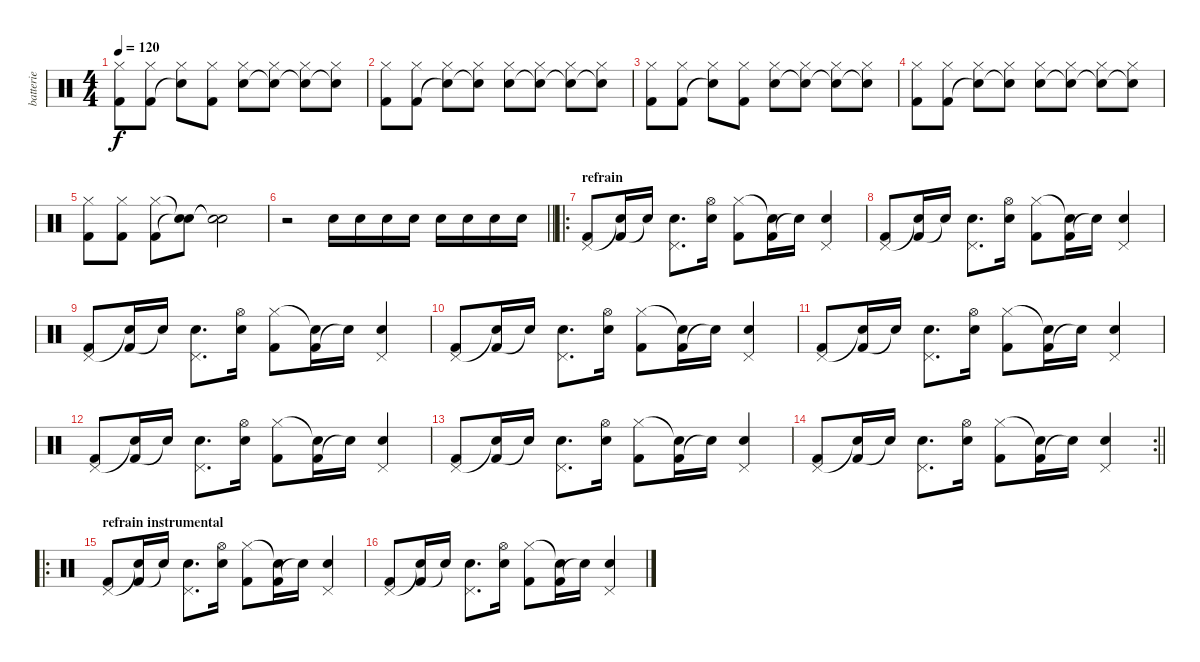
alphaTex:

\track ("batterie" "batterie") {instrument percussion}
\staff {score}
\articulation defaults
\ts (4 4)
\tempo 120
\clef neutral
\ks c
("Kick (hit) 2" "Hi-Hat (closed)").8{dy f} ("Kick (hit) 2" "Hi-Hat (closed)").8 ("Snare (hit)"{t} "Hi-Hat (closed)").8 ("Kick (hit) 2" "Hi-Hat (closed)").8 ("Hi-Hat (closed)" "Snare (hit) 2").8 ("Hi-Hat (closed)" "Snare (hit)"{t}).8 ("Hi-Hat (closed)" "Snare (hit)"{t}).8 ("Hi-Hat (closed)" "Snare (hit)"{t}).8 |
("Kick (hit) 2" "Hi-Hat (closed)").8 ("Kick (hit) 2" "Hi-Hat (closed)").8 ("Snare (hit)"{t} "Hi-Hat (closed)").8 ("Snare (hit)"{t} "Hi-Hat (closed)").8 ("Hi-Hat (closed)" "Snare (hit) 2").8 ("Hi-Hat (closed)" "Snare (hit)"{t}).8 ("Hi-Hat (closed)" "Snare (hit)"{t}).8 ("Hi-Hat (closed)" "Snare (hit)"{t}).8 |
("Kick (hit) 2" "Hi-Hat (closed)").8 ("Kick (hit) 2" "Hi-Hat (closed)").8 ("Snare (hit)"{t} "Hi-Hat (closed)").8 ("Kick (hit) 2" "Hi-Hat (closed)").8 ("Hi-Hat (closed)" "Snare (hit) 2").8 ("Hi-Hat (closed)" "Snare (hit)"{t}).8 ("Hi-Hat (closed)" "Snare (hit)"{t}).8 ("Hi-Hat (closed)" "Snare (hit)"{t}).8 |
("Kick (hit) 2" "Hi-Hat (closed)").8 ("Kick (hit) 2" "Hi-Hat (closed)").8 ("Snare (hit)"{t} "Hi-Hat (closed)").8 ("Snare (hit)"{t} "Hi-Hat (closed)").8 ("Hi-Hat (closed)" "Snare (hit) 2").8 ("Hi-Hat (closed)" "Snare (hit)"{t}).8 ("Hi-Hat (closed)" "Snare (hit)"{t}).8 ("Hi-Hat (closed)" "Snare (hit)"{t}).8 |
("Kick (hit) 2" "Hi-Hat (closed)").8 ("Kick (hit) 2" "Hi-Hat (closed)").8 ("Kick (hit) 2" "Hi-Hat (closed)").8 ("Snare (hit)"{t} "Snare (hit)"{t}).8 ("Snare (hit)"{t} "Snare (hit)"{t}).2 |
\barLineRight lightlight
r.2 "Snare (hit) 2".16 "Snare (hit) 2".16 "Snare (hit) 2".16 "Snare (hit) 2".16 "Snare (hit) 2".16 "Snare (hit) 2".16 "Snare (hit) 2".16 "Snare (hit) 2".16 |
\ro
\section ("" "refrain")
("Kick (hit) 2" "Pedal Hi-Hat (hit)").8 ("Kick (hit) 2" "Snare (hit)"{t}).16 "Snare (hit)"{t}.16 ("Snare (hit) 2" "Pedal Hi-Hat (hit)").8{d} ("Snare (hit) 2" "Hi-Hat (open)").16 ("Kick (hit) 2" "Hi-Hat (closed)").8 ("Kick (hit) 2" "Snare (hit)"{t}).16 "Snare (hit)"{t}.16 ("Snare (hit) 2" "Pedal Hi-Hat (hit)").4 |
("Kick (hit) 2" "Pedal Hi-Hat (hit)").8 ("Kick (hit) 2" "Snare (hit)"{t}).16 "Snare (hit)"{t}.16 ("Snare (hit) 2" "Pedal Hi-Hat (hit)").8{d} ("Snare (hit) 2" "Hi-Hat (open)").16 ("Kick (hit) 2" "Hi-Hat (closed)").8 ("Kick (hit) 2" "Snare (hit)"{t}).16 "Snare (hit)"{t}.16 ("Snare (hit) 2" "Pedal Hi-Hat (hit)").4 |
("Kick (hit) 2" "Pedal Hi-Hat (hit)").8 ("Kick (hit) 2" "Snare (hit)"{t}).16 "Snare (hit)"{t}.16 ("Snare (hit) 2" "Pedal Hi-Hat (hit)").8{d} ("Snare (hit) 2" "Hi-Hat (open)").16 ("Kick (hit) 2" "Hi-Hat (closed)").8 ("Kick (hit) 2" "Snare (hit)"{t}).16 "Snare (hit)"{t}.16 ("Snare (hit) 2" "Pedal Hi-Hat (hit)").4 |
("Kick (hit) 2" "Pedal Hi-Hat (hit)").8 ("Kick (hit) 2" "Snare (hit)"{t}).16 "Snare (hit)"{t}.16 ("Snare (hit) 2" "Pedal Hi-Hat (hit)").8{d} ("Snare (hit) 2" "Hi-Hat (open)").16 ("Kick (hit) 2" "Hi-Hat (closed)").8 ("Kick (hit) 2" "Snare (hit)"{t}).16 "Snare (hit)"{t}.16 ("Snare (hit) 2" "Pedal Hi-Hat (hit)").4 |
("Kick (hit) 2" "Pedal Hi-Hat (hit)").8 ("Kick (hit) 2" "Snare (hit)"{t}).16 "Snare (hit)"{t}.16 ("Snare (hit) 2" "Pedal Hi-Hat (hit)").8{d} ("Snare (hit) 2" "Hi-Hat (open)").16 ("Kick (hit) 2" "Hi-Hat (closed)").8 ("Kick (hit) 2" "Snare (hit)"{t}).16 "Snare (hit)"{t}.16 ("Snare (hit) 2" "Pedal Hi-Hat (hit)").4 |
("Kick (hit) 2" "Pedal Hi-Hat (hit)").8 ("Kick (hit) 2" "Snare (hit)"{t}).16 "Snare (hit)"{t}.16 ("Snare (hit) 2" "Pedal Hi-Hat (hit)").8{d} ("Snare (hit) 2" "Hi-Hat (open)").16 ("Kick (hit) 2" "Hi-Hat (closed)").8 ("Kick (hit) 2" "Snare (hit)"{t}).16 "Snare (hit)"{t}.16 ("Snare (hit) 2" "Pedal Hi-Hat (hit)").4 |
("Kick (hit) 2" "Pedal Hi-Hat (hit)").8 ("Kick (hit) 2" "Snare (hit)"{t}).16 "Snare (hit)"{t}.16 ("Snare (hit) 2" "Pedal Hi-Hat (hit)").8{d} ("Snare (hit) 2" "Hi-Hat (open)").16 ("Kick (hit) 2" "Hi-Hat (closed)").8 ("Kick (hit) 2" "Snare (hit)"{t}).16 "Snare (hit)"{t}.16 ("Snare (hit) 2" "Pedal Hi-Hat (hit)").4 |
\rc 2
\barLineRight lightlight
("Kick (hit) 2" "Pedal Hi-Hat (hit)").8 ("Kick (hit) 2" "Snare (hit)"{t}).16 "Snare (hit)"{t}.16 ("Snare (hit) 2" "Pedal Hi-Hat (hit)").8{d} ("Snare (hit) 2" "Hi-Hat (open)").16 ("Kick (hit) 2" "Hi-Hat (closed)").8 ("Kick (hit) 2" "Snare (hit)"{t}).16 "Snare (hit)"{t}.16 ("Snare (hit) 2" "Pedal Hi-Hat (hit)").4 |
\ro
\section ("" "refrain instrumental")
("Kick (hit) 2" "Pedal Hi-Hat (hit)").8 ("Kick (hit) 2" "Snare (hit)"{t}).16 "Snare (hit)"{t}.16 ("Snare (hit) 2" "Pedal Hi-Hat (hit)").8{d} ("Snare (hit) 2" "Hi-Hat (open)").16 ("Kick (hit) 2" "Hi-Hat (closed)").8 ("Kick (hit) 2" "Snare (hit)"{t}).16 "Snare (hit)"{t}.16 ("Snare (hit) 2" "Pedal Hi-Hat (hit)").4 |
("Kick (hit) 2" "Pedal Hi-Hat (hit)").8 ("Kick (hit) 2" "Snare (hit)"{t}).16 "Snare (hit)"{t}.16 ("Snare (hit) 2" "Pedal Hi-Hat (hit)").8{d} ("Snare (hit) 2" "Hi-Hat (open)").16 ("Kick (hit) 2" "Hi-Hat (closed)").8 ("Kick (hit) 2" "Snare (hit)"{t}).16 "Snare (hit)"{t}.16 ("Snare (hit) 2" "Pedal Hi-Hat (hit)").4
